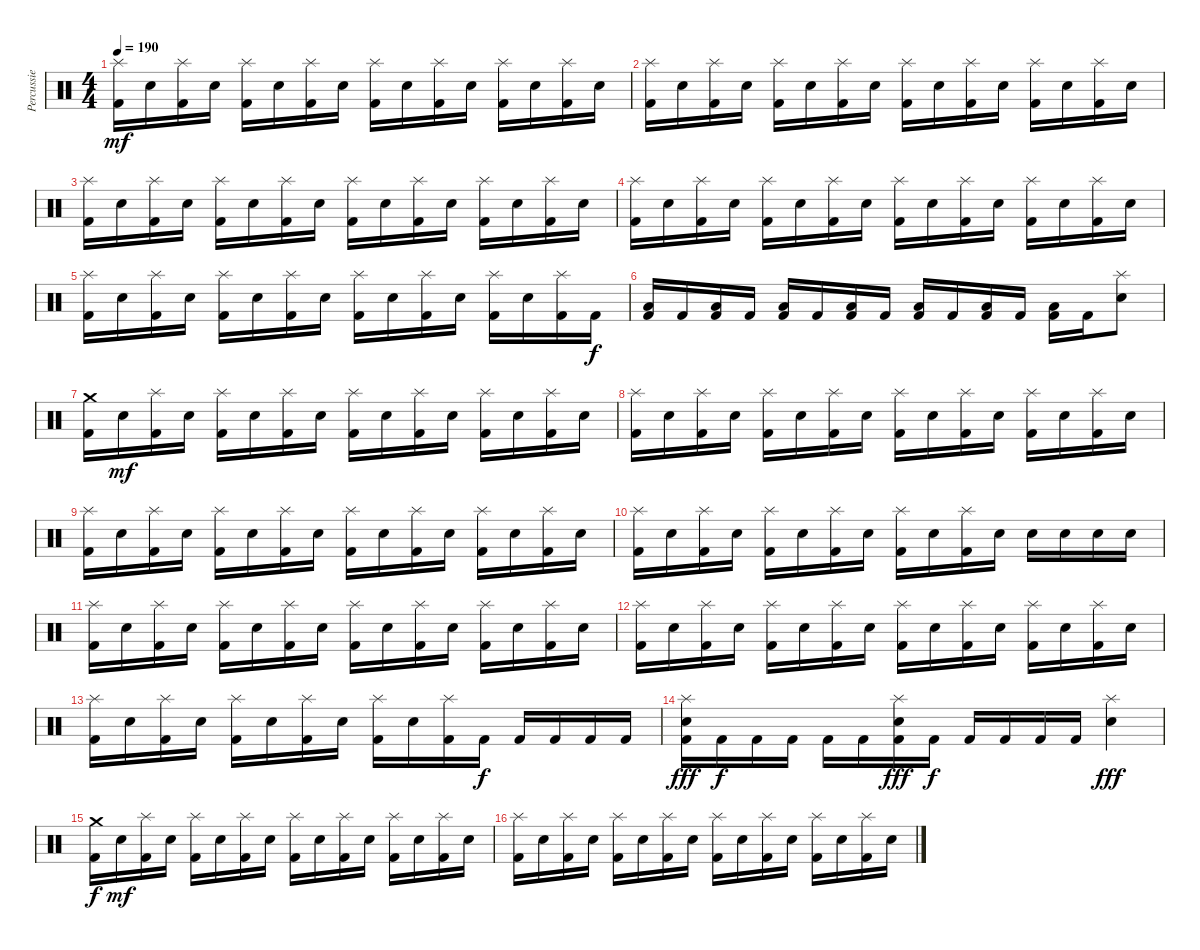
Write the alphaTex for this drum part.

\track ("Percussie" "Percussie") {instrument percussion}
\staff {score}
\articulation defaults
\ts (4 4)
\tempo 190
\clef neutral
\ks c
("Splash (hit)" "Kick (hit) 2").16{dy mf} "Electric Snare (hit)".16 ("Splash (hit)" "Kick (hit) 2").16 "Electric Snare (hit)".16 ("Splash (hit)" "Kick (hit) 2").16 "Electric Snare (hit)".16 ("Splash (hit)" "Kick (hit) 2").16 "Electric Snare (hit)".16 ("Splash (hit)" "Kick (hit) 2").16 "Electric Snare (hit)".16 ("Splash (hit)" "Kick (hit) 2").16 "Electric Snare (hit)".16 ("Splash (hit)" "Kick (hit) 2").16 "Electric Snare (hit)".16 ("Splash (hit)" "Kick (hit) 2").16 "Electric Snare (hit)".16 |
("Splash (hit)" "Kick (hit) 2").16 "Electric Snare (hit)".16 ("Splash (hit)" "Kick (hit) 2").16 "Electric Snare (hit)".16 ("Splash (hit)" "Kick (hit) 2").16 "Electric Snare (hit)".16 ("Splash (hit)" "Kick (hit) 2").16 "Electric Snare (hit)".16 ("Splash (hit)" "Kick (hit) 2").16 "Electric Snare (hit)".16 ("Splash (hit)" "Kick (hit) 2").16 "Electric Snare (hit)".16 ("Splash (hit)" "Kick (hit) 2").16 "Electric Snare (hit)".16 ("Splash (hit)" "Kick (hit) 2").16 "Electric Snare (hit)".16 |
("Splash (hit)" "Kick (hit) 2").16 "Electric Snare (hit)".16 ("Splash (hit)" "Kick (hit) 2").16 "Electric Snare (hit)".16 ("Splash (hit)" "Kick (hit) 2").16 "Electric Snare (hit)".16 ("Splash (hit)" "Kick (hit) 2").16 "Electric Snare (hit)".16 ("Splash (hit)" "Kick (hit) 2").16 "Electric Snare (hit)".16 ("Splash (hit)" "Kick (hit) 2").16 "Electric Snare (hit)".16 ("Splash (hit)" "Kick (hit) 2").16 "Electric Snare (hit)".16 ("Splash (hit)" "Kick (hit) 2").16 "Electric Snare (hit)".16 |
("Splash (hit)" "Kick (hit) 2").16 "Electric Snare (hit)".16 ("Splash (hit)" "Kick (hit) 2").16 "Electric Snare (hit)".16 ("Splash (hit)" "Kick (hit) 2").16 "Electric Snare (hit)".16 ("Splash (hit)" "Kick (hit) 2").16 "Electric Snare (hit)".16 ("Splash (hit)" "Kick (hit) 2").16 "Electric Snare (hit)".16 ("Splash (hit)" "Kick (hit) 2").16 "Electric Snare (hit)".16 ("Splash (hit)" "Kick (hit) 2").16 "Electric Snare (hit)".16 ("Splash (hit)" "Kick (hit) 2").16 "Electric Snare (hit)".16 |
("Splash (hit)" "Kick (hit) 2").16 "Electric Snare (hit)".16 ("Splash (hit)" "Kick (hit) 2").16 "Electric Snare (hit)".16 ("Splash (hit)" "Kick (hit) 2").16 "Electric Snare (hit)".16 ("Splash (hit)" "Kick (hit) 2").16 "Electric Snare (hit)".16 ("Splash (hit)" "Kick (hit) 2").16 "Electric Snare (hit)".16 ("Splash (hit)" "Kick (hit) 2").16 "Electric Snare (hit)".16 ("Splash (hit)" "Kick (hit) 2").16 "Electric Snare (hit)".16 ("Splash (hit)" "Kick (hit) 2").16 "Kick (hit) 2".16{dy f} |
("Low Tom (hit)" "Kick (hit) 2").16 "Kick (hit) 2".16 ("Low Tom (hit)" "Kick (hit) 2").16 "Kick (hit) 2".16 ("Low Tom (hit)" "Kick (hit) 2").16 "Kick (hit) 2".16 ("Low Tom (hit)" "Kick (hit) 2").16 "Kick (hit) 2".16 ("Low Tom (hit)" "Kick (hit) 2").16 "Kick (hit) 2".16 ("Low Tom (hit)" "Kick (hit) 2").16 "Kick (hit) 2".16 ("Low Tom (hit)" "Kick (hit) 2").16 "Kick (hit) 2".16 ("Splash (hit)" "Electric Snare (hit)").8 |
("Crash medium (hit)" "Kick (hit) 2").16 "Electric Snare (hit)".16{dy mf} ("Splash (hit)" "Kick (hit) 2").16 "Electric Snare (hit)".16 ("Splash (hit)" "Kick (hit) 2").16 "Electric Snare (hit)".16 ("Splash (hit)" "Kick (hit) 2").16 "Electric Snare (hit)".16 ("Splash (hit)" "Kick (hit) 2").16 "Electric Snare (hit)".16 ("Splash (hit)" "Kick (hit) 2").16 "Electric Snare (hit)".16 ("Splash (hit)" "Kick (hit) 2").16 "Electric Snare (hit)".16 ("Splash (hit)" "Kick (hit) 2").16 "Electric Snare (hit)".16 |
("Splash (hit)" "Kick (hit) 2").16 "Electric Snare (hit)".16 ("Splash (hit)" "Kick (hit) 2").16 "Electric Snare (hit)".16 ("Splash (hit)" "Kick (hit) 2").16 "Electric Snare (hit)".16 ("Splash (hit)" "Kick (hit) 2").16 "Electric Snare (hit)".16 ("Splash (hit)" "Kick (hit) 2").16 "Electric Snare (hit)".16 ("Splash (hit)" "Kick (hit) 2").16 "Electric Snare (hit)".16 ("Splash (hit)" "Kick (hit) 2").16 "Electric Snare (hit)".16 ("Splash (hit)" "Kick (hit) 2").16 "Electric Snare (hit)".16 |
("Splash (hit)" "Kick (hit) 2").16 "Electric Snare (hit)".16 ("Splash (hit)" "Kick (hit) 2").16 "Electric Snare (hit)".16 ("Splash (hit)" "Kick (hit) 2").16 "Electric Snare (hit)".16 ("Splash (hit)" "Kick (hit) 2").16 "Electric Snare (hit)".16 ("Splash (hit)" "Kick (hit) 2").16 "Electric Snare (hit)".16 ("Splash (hit)" "Kick (hit) 2").16 "Electric Snare (hit)".16 ("Splash (hit)" "Kick (hit) 2").16 "Electric Snare (hit)".16 ("Splash (hit)" "Kick (hit) 2").16 "Electric Snare (hit)".16 |
("Splash (hit)" "Kick (hit) 2").16 "Electric Snare (hit)".16 ("Splash (hit)" "Kick (hit) 2").16 "Electric Snare (hit)".16 ("Splash (hit)" "Kick (hit) 2").16 "Electric Snare (hit)".16 ("Splash (hit)" "Kick (hit) 2").16 "Electric Snare (hit)".16 ("Splash (hit)" "Kick (hit) 2").16 "Electric Snare (hit)".16 ("Splash (hit)" "Kick (hit) 2").16 "Electric Snare (hit)".16 "Electric Snare (hit)".16 "Electric Snare (hit)".16 "Electric Snare (hit)".16 "Electric Snare (hit)".16 |
("Splash (hit)" "Kick (hit) 2").16 "Electric Snare (hit)".16 ("Splash (hit)" "Kick (hit) 2").16 "Electric Snare (hit)".16 ("Splash (hit)" "Kick (hit) 2").16 "Electric Snare (hit)".16 ("Splash (hit)" "Kick (hit) 2").16 "Electric Snare (hit)".16 ("Splash (hit)" "Kick (hit) 2").16 "Electric Snare (hit)".16 ("Splash (hit)" "Kick (hit) 2").16 "Electric Snare (hit)".16 ("Splash (hit)" "Kick (hit) 2").16 "Electric Snare (hit)".16 ("Splash (hit)" "Kick (hit) 2").16 "Electric Snare (hit)".16 |
("Splash (hit)" "Kick (hit) 2").16 "Electric Snare (hit)".16 ("Splash (hit)" "Kick (hit) 2").16 "Electric Snare (hit)".16 ("Splash (hit)" "Kick (hit) 2").16 "Electric Snare (hit)".16 ("Splash (hit)" "Kick (hit) 2").16 "Electric Snare (hit)".16 ("Splash (hit)" "Kick (hit) 2").16 "Electric Snare (hit)".16 ("Splash (hit)" "Kick (hit) 2").16 "Electric Snare (hit)".16 ("Splash (hit)" "Kick (hit) 2").16 "Electric Snare (hit)".16 ("Splash (hit)" "Kick (hit) 2").16 "Electric Snare (hit)".16 |
("Splash (hit)" "Kick (hit) 2").16 "Electric Snare (hit)".16 ("Splash (hit)" "Kick (hit) 2").16 "Electric Snare (hit)".16 ("Splash (hit)" "Kick (hit) 2").16 "Electric Snare (hit)".16 ("Splash (hit)" "Kick (hit) 2").16 "Electric Snare (hit)".16 ("Splash (hit)" "Kick (hit) 2").16 "Electric Snare (hit)".16 ("Splash (hit)" "Kick (hit) 2").16 "Kick (hit) 2".16{dy f} "Kick (hit) 2".16 "Kick (hit) 2".16 "Kick (hit) 2".16 "Kick (hit) 2".16 |
("Splash (hit)" "Electric Snare (hit)" "Kick (hit) 2").16{dy fff} "Kick (hit) 2".16{dy f} "Kick (hit) 2".16 "Kick (hit) 2".16 "Kick (hit) 2".16 "Kick (hit) 2".16 ("Splash (hit)" "Electric Snare (hit)" "Kick (hit) 2").16{dy fff} "Kick (hit) 2".16{dy f} "Kick (hit) 2".16 "Kick (hit) 2".16 "Kick (hit) 2".16 "Kick (hit) 2".16 ("Splash (hit)" "Electric Snare (hit)").4{dy fff} |
("Crash medium (hit)" "Kick (hit) 2").16{dy f} "Electric Snare (hit)".16{dy mf} ("Splash (hit)" "Kick (hit) 2").16 "Electric Snare (hit)".16 ("Splash (hit)" "Kick (hit) 2").16 "Electric Snare (hit)".16 ("Splash (hit)" "Kick (hit) 2").16 "Electric Snare (hit)".16 ("Splash (hit)" "Kick (hit) 2").16 "Electric Snare (hit)".16 ("Splash (hit)" "Kick (hit) 2").16 "Electric Snare (hit)".16 ("Splash (hit)" "Kick (hit) 2").16 "Electric Snare (hit)".16 ("Splash (hit)" "Kick (hit) 2").16 "Electric Snare (hit)".16 |
("Splash (hit)" "Kick (hit) 2").16 "Electric Snare (hit)".16 ("Splash (hit)" "Kick (hit) 2").16 "Electric Snare (hit)".16 ("Splash (hit)" "Kick (hit) 2").16 "Electric Snare (hit)".16 ("Splash (hit)" "Kick (hit) 2").16 "Electric Snare (hit)".16 ("Splash (hit)" "Kick (hit) 2").16 "Electric Snare (hit)".16 ("Splash (hit)" "Kick (hit) 2").16 "Electric Snare (hit)".16 ("Splash (hit)" "Kick (hit) 2").16 "Electric Snare (hit)".16 ("Splash (hit)" "Kick (hit) 2").16 "Electric Snare (hit)".16
